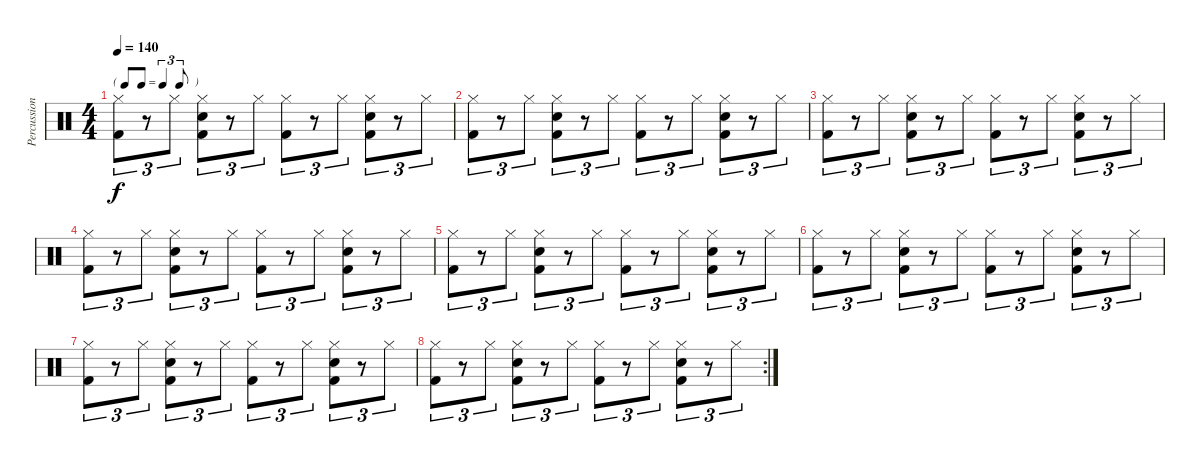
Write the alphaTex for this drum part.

\track ("Percussion" "Percussion") {instrument percussion}
\staff {score}
\articulation defaults
\ts (4 4)
\tf triplet8th
\tempo 140
\clef neutral
\ks c
("Hi-Hat (closed)" "Kick (hit) 2").8{tu (3 2) dy f} r.8{tu (3 2)} "Hi-Hat (closed)".8{tu (3 2)} ("Hi-Hat (closed)" "Snare (hit) 2" "Kick (hit) 2").8{tu (3 2)} r.8{tu (3 2)} "Hi-Hat (closed)".8{tu (3 2)} ("Hi-Hat (closed)" "Kick (hit) 2").8{tu (3 2)} r.8{tu (3 2)} "Hi-Hat (closed)".8{tu (3 2)} ("Hi-Hat (closed)" "Snare (hit) 2" "Kick (hit) 2").8{tu (3 2)} r.8{tu (3 2)} "Hi-Hat (closed)".8{tu (3 2)} |
("Hi-Hat (closed)" "Kick (hit) 2").8{tu (3 2)} r.8{tu (3 2)} "Hi-Hat (closed)".8{tu (3 2)} ("Hi-Hat (closed)" "Snare (hit) 2" "Kick (hit) 2").8{tu (3 2)} r.8{tu (3 2)} "Hi-Hat (closed)".8{tu (3 2)} ("Hi-Hat (closed)" "Kick (hit) 2").8{tu (3 2)} r.8{tu (3 2)} "Hi-Hat (closed)".8{tu (3 2)} ("Hi-Hat (closed)" "Snare (hit) 2" "Kick (hit) 2").8{tu (3 2)} r.8{tu (3 2)} "Hi-Hat (closed)".8{tu (3 2)} |
("Hi-Hat (closed)" "Kick (hit) 2").8{tu (3 2)} r.8{tu (3 2)} "Hi-Hat (closed)".8{tu (3 2)} ("Hi-Hat (closed)" "Snare (hit) 2" "Kick (hit) 2").8{tu (3 2)} r.8{tu (3 2)} "Hi-Hat (closed)".8{tu (3 2)} ("Hi-Hat (closed)" "Kick (hit) 2").8{tu (3 2)} r.8{tu (3 2)} "Hi-Hat (closed)".8{tu (3 2)} ("Hi-Hat (closed)" "Snare (hit) 2" "Kick (hit) 2").8{tu (3 2)} r.8{tu (3 2)} "Hi-Hat (closed)".8{tu (3 2)} |
("Hi-Hat (closed)" "Kick (hit) 2").8{tu (3 2)} r.8{tu (3 2)} "Hi-Hat (closed)".8{tu (3 2)} ("Hi-Hat (closed)" "Snare (hit) 2" "Kick (hit) 2").8{tu (3 2)} r.8{tu (3 2)} "Hi-Hat (closed)".8{tu (3 2)} ("Hi-Hat (closed)" "Kick (hit) 2").8{tu (3 2)} r.8{tu (3 2)} "Hi-Hat (closed)".8{tu (3 2)} ("Hi-Hat (closed)" "Snare (hit) 2" "Kick (hit) 2").8{tu (3 2)} r.8{tu (3 2)} "Hi-Hat (closed)".8{tu (3 2)} |
("Hi-Hat (closed)" "Kick (hit) 2").8{tu (3 2)} r.8{tu (3 2)} "Hi-Hat (closed)".8{tu (3 2)} ("Hi-Hat (closed)" "Snare (hit) 2" "Kick (hit) 2").8{tu (3 2)} r.8{tu (3 2)} "Hi-Hat (closed)".8{tu (3 2)} ("Hi-Hat (closed)" "Kick (hit) 2").8{tu (3 2)} r.8{tu (3 2)} "Hi-Hat (closed)".8{tu (3 2)} ("Hi-Hat (closed)" "Snare (hit) 2" "Kick (hit) 2").8{tu (3 2)} r.8{tu (3 2)} "Hi-Hat (closed)".8{tu (3 2)} |
("Hi-Hat (closed)" "Kick (hit) 2").8{tu (3 2)} r.8{tu (3 2)} "Hi-Hat (closed)".8{tu (3 2)} ("Hi-Hat (closed)" "Snare (hit) 2" "Kick (hit) 2").8{tu (3 2)} r.8{tu (3 2)} "Hi-Hat (closed)".8{tu (3 2)} ("Hi-Hat (closed)" "Kick (hit) 2").8{tu (3 2)} r.8{tu (3 2)} "Hi-Hat (closed)".8{tu (3 2)} ("Hi-Hat (closed)" "Snare (hit) 2" "Kick (hit) 2").8{tu (3 2)} r.8{tu (3 2)} "Hi-Hat (closed)".8{tu (3 2)} |
("Hi-Hat (closed)" "Kick (hit) 2").8{tu (3 2)} r.8{tu (3 2)} "Hi-Hat (closed)".8{tu (3 2)} ("Hi-Hat (closed)" "Snare (hit) 2" "Kick (hit) 2").8{tu (3 2)} r.8{tu (3 2)} "Hi-Hat (closed)".8{tu (3 2)} ("Hi-Hat (closed)" "Kick (hit) 2").8{tu (3 2)} r.8{tu (3 2)} "Hi-Hat (closed)".8{tu (3 2)} ("Hi-Hat (closed)" "Snare (hit) 2" "Kick (hit) 2").8{tu (3 2)} r.8{tu (3 2)} "Hi-Hat (closed)".8{tu (3 2)} |
\rc 2
("Hi-Hat (closed)" "Kick (hit) 2").8{tu (3 2)} r.8{tu (3 2)} "Hi-Hat (closed)".8{tu (3 2)} ("Hi-Hat (closed)" "Snare (hit) 2" "Kick (hit) 2").8{tu (3 2)} r.8{tu (3 2)} "Hi-Hat (closed)".8{tu (3 2)} ("Hi-Hat (closed)" "Kick (hit) 2").8{tu (3 2)} r.8{tu (3 2)} "Hi-Hat (closed)".8{tu (3 2)} ("Hi-Hat (closed)" "Snare (hit) 2" "Kick (hit) 2").8{tu (3 2)} r.8{tu (3 2)} "Hi-Hat (closed)".8{tu (3 2)}
